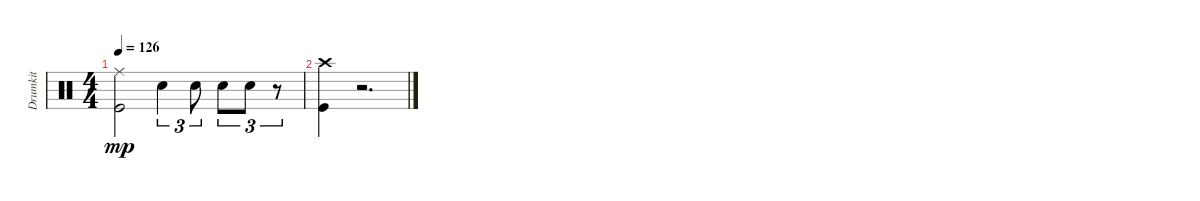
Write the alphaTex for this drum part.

\track ("Drumkit" "Drumkit") {instrument percussion}
\staff {score}
\articulation defaults
\ts (4 4)
\tempo 126
\clef neutral
\ks c
("Kick (hit)" "Ride (middle)").2{dy mp} "Snare (hit) 2".4{tu (3 2)} "Snare (hit) 2".8{tu (3 2)} "Snare (hit) 2".8{tu (3 2)} "Snare (hit) 2".8{tu (3 2)} r.8{tu (3 2)} |
("Kick (hit)" "Crash high (hit)").4 r.2{d}
